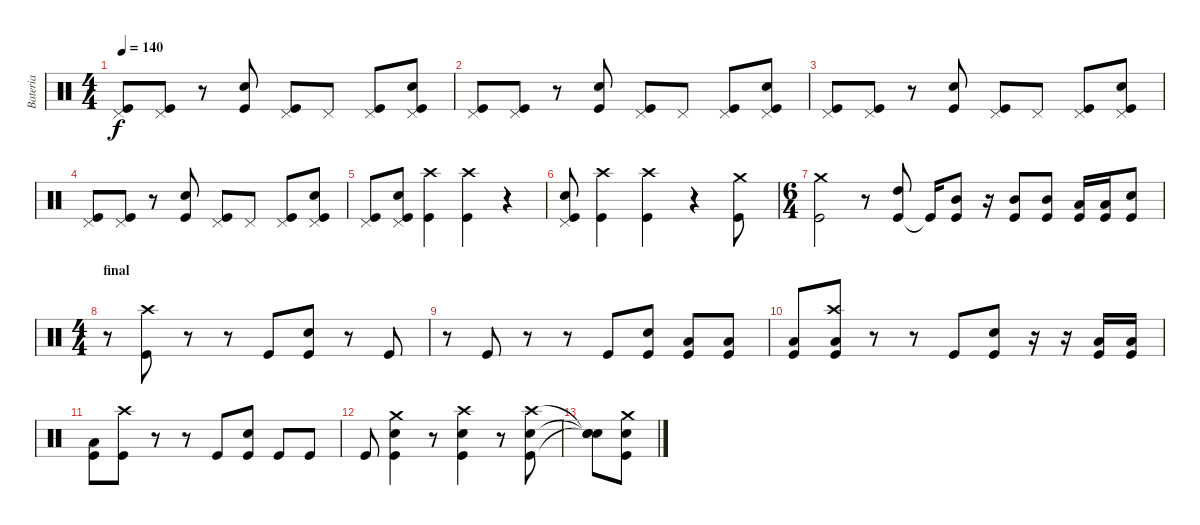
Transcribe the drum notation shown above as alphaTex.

\track ("Bateria" "Bateria") {instrument percussion}
\staff {score}
\articulation defaults
\ts (4 4)
\tempo 140
\clef neutral
\ks c
("Kick (hit)" "Pedal Hi-Hat (hit)").8{dy f} ("Kick (hit)" "Pedal Hi-Hat (hit)").8 r.8 ("Kick (hit)" "Snare (hit) 2").8 ("Kick (hit)" "Pedal Hi-Hat (hit)").8 "Pedal Hi-Hat (hit)".8 ("Kick (hit)" "Pedal Hi-Hat (hit)").8 ("Kick (hit)" "Snare (hit) 2" "Pedal Hi-Hat (hit)").8 |
("Kick (hit)" "Pedal Hi-Hat (hit)").8 ("Kick (hit)" "Pedal Hi-Hat (hit)").8 r.8 ("Kick (hit)" "Snare (hit) 2").8 ("Kick (hit)" "Pedal Hi-Hat (hit)").8 "Pedal Hi-Hat (hit)".8 ("Kick (hit)" "Pedal Hi-Hat (hit)").8 ("Kick (hit)" "Snare (hit) 2" "Pedal Hi-Hat (hit)").8 |
("Kick (hit)" "Pedal Hi-Hat (hit)").8 ("Kick (hit)" "Pedal Hi-Hat (hit)").8 r.8 ("Kick (hit)" "Snare (hit) 2").8 ("Kick (hit)" "Pedal Hi-Hat (hit)").8 "Pedal Hi-Hat (hit)".8 ("Kick (hit)" "Pedal Hi-Hat (hit)").8 ("Kick (hit)" "Snare (hit) 2" "Pedal Hi-Hat (hit)").8 |
("Kick (hit)" "Pedal Hi-Hat (hit)").8 ("Kick (hit)" "Pedal Hi-Hat (hit)").8 r.8 ("Kick (hit)" "Snare (hit) 2").8 ("Kick (hit)" "Pedal Hi-Hat (hit)").8 "Pedal Hi-Hat (hit)".8 ("Kick (hit)" "Pedal Hi-Hat (hit)").8 ("Kick (hit)" "Snare (hit) 2" "Pedal Hi-Hat (hit)").8 |
("Kick (hit)" "Pedal Hi-Hat (hit)").8 ("Kick (hit)" "Snare (hit) 2" "Pedal Hi-Hat (hit)").8 ("Kick (hit)" "Crash high (hit)").4 ("Kick (hit)" "Crash high (hit)").4 r.4 |
("Kick (hit)" "Snare (hit) 2" "Pedal Hi-Hat (hit)").8 ("Kick (hit)" "Crash high (hit)").4 ("Kick (hit)" "Crash high (hit)").4 r.4 ("Kick (hit)" "Crash medium (hit)").8 |
\ts (6 4)
("Kick (hit)" "Crash medium (hit)").2 r.8 ("Kick (hit)" "High Tom (hit)").8 "Kick (hit)"{t}.16 ("Kick (hit)" "Mid Tom (hit)").8 r.16 ("Kick (hit)" "Mid Tom (hit)").8 ("Kick (hit)" "Mid Tom (hit)").8 ("Kick (hit)" "Low Tom (hit)").16 ("Kick (hit)" "Low Tom (hit)").16 ("Kick (hit)" "Snare (hit) 2").8 |
\ts (4 4)
\section ("" "final")
r.8 ("Kick (hit)" "Crash high (hit)").8 r.8 r.8 "Kick (hit)".8 ("Kick (hit)" "Snare (hit) 2").8 r.8 "Kick (hit)".8 |
r.8 "Kick (hit)".8 r.8 r.8 "Kick (hit)".8 ("Kick (hit)" "Snare (hit) 2").8 ("Kick (hit)" "Low Tom (hit)").8 ("Kick (hit)" "Low Tom (hit)").8 |
("Kick (hit)" "Low Tom (hit)").8 ("Kick (hit)" "Low Tom (hit)" "Crash high (hit)").8 r.8 r.8 "Kick (hit)".8 ("Kick (hit)" "Snare (hit) 2").8 r.16 r.16 ("Kick (hit)" "Low Tom (hit)").16 ("Kick (hit)" "Low Tom (hit)").16 |
("Kick (hit)" "Low Tom (hit)").8 ("Kick (hit)" "Crash high (hit)").8 r.8 r.8 "Kick (hit)".8 ("Kick (hit)" "Snare (hit) 2").8 "Kick (hit)".8 "Kick (hit)".8 |
"Kick (hit)".8 ("Kick (hit)" "Snare (hit) 2" "Crash medium (hit)").4 r.8 ("Kick (hit)" "Snare (hit) 2" "Crash high (hit)").4 r.8 ("Kick (hit)" "Snare (hit) 2" "Crash high (hit)").8 |
("Snare (hit)"{t} "Snare (hit)"{t} "Snare (hit)"{t}).8 ("Kick (hit)" "Snare (hit) 2" "Crash medium (hit)").8
